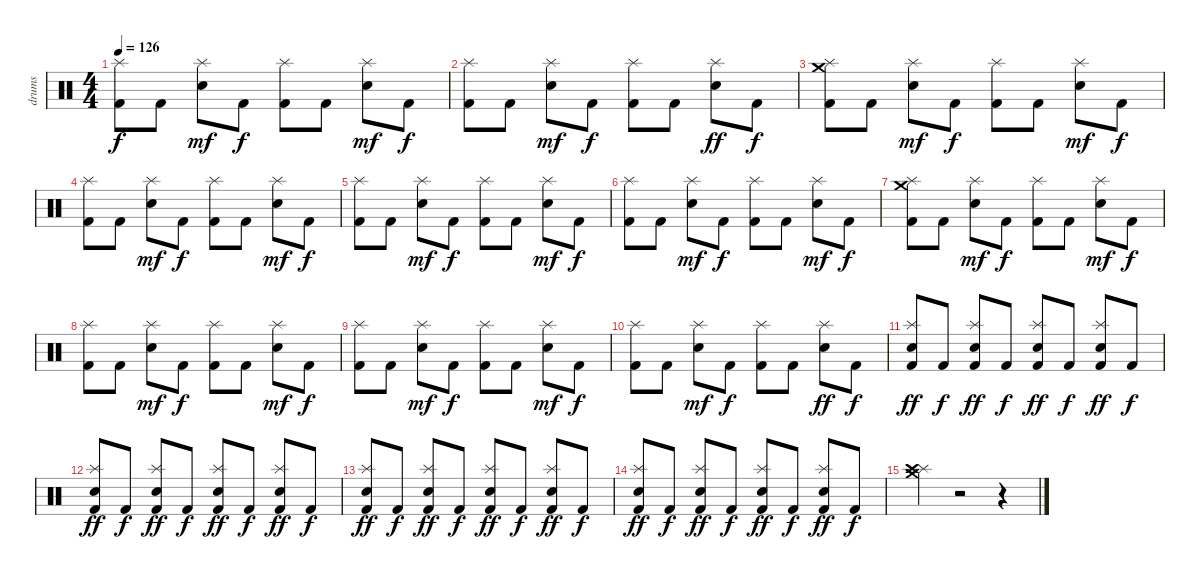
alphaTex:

\track ("drums" "drums") {instrument percussion}
\staff {score}
\articulation defaults
\ts (4 4)
\tempo 126
\clef neutral
\ks c
("Kick (hit) 2" "Splash (hit)").8{dy f} "Kick (hit) 2".8 ("Snare (hit) 2" "Splash (hit)").8{dy mf} "Kick (hit) 2".8{dy f} ("Kick (hit) 2" "Splash (hit)").8 "Kick (hit) 2".8 ("Snare (hit) 2" "Splash (hit)").8{dy mf} "Kick (hit) 2".8{dy f} |
("Kick (hit) 2" "Splash (hit)").8 "Kick (hit) 2".8 ("Snare (hit) 2" "Splash (hit)").8{dy mf} "Kick (hit) 2".8{dy f} ("Splash (hit)" "Kick (hit) 2").8 "Kick (hit) 2".8 ("Splash (hit)" "Snare (hit) 2").8{dy ff} "Kick (hit) 2".8{dy f} |
("Crash medium (hit)" "Kick (hit) 2" "Splash (hit)").8 "Kick (hit) 2".8 ("Snare (hit) 2" "Splash (hit)").8{dy mf} "Kick (hit) 2".8{dy f} ("Kick (hit) 2" "Splash (hit)").8 "Kick (hit) 2".8 ("Snare (hit) 2" "Splash (hit)").8{dy mf} "Kick (hit) 2".8{dy f} |
("Kick (hit) 2" "Splash (hit)").8 "Kick (hit) 2".8 ("Snare (hit) 2" "Splash (hit)").8{dy mf} "Kick (hit) 2".8{dy f} ("Kick (hit) 2" "Splash (hit)").8 "Kick (hit) 2".8 ("Snare (hit) 2" "Splash (hit)").8{dy mf} "Kick (hit) 2".8{dy f} |
("Kick (hit) 2" "Splash (hit)").8 "Kick (hit) 2".8 ("Snare (hit) 2" "Splash (hit)").8{dy mf} "Kick (hit) 2".8{dy f} ("Kick (hit) 2" "Splash (hit)").8 "Kick (hit) 2".8 ("Snare (hit) 2" "Splash (hit)").8{dy mf} "Kick (hit) 2".8{dy f} |
("Kick (hit) 2" "Splash (hit)").8 "Kick (hit) 2".8 ("Snare (hit) 2" "Splash (hit)").8{dy mf} "Kick (hit) 2".8{dy f} ("Kick (hit) 2" "Splash (hit)").8 "Kick (hit) 2".8 ("Snare (hit) 2" "Splash (hit)").8{dy mf} "Kick (hit) 2".8{dy f} |
("Crash medium (hit)" "Kick (hit) 2" "Splash (hit)").8 "Kick (hit) 2".8 ("Snare (hit) 2" "Splash (hit)").8{dy mf} "Kick (hit) 2".8{dy f} ("Kick (hit) 2" "Splash (hit)").8 "Kick (hit) 2".8 ("Snare (hit) 2" "Splash (hit)").8{dy mf} "Kick (hit) 2".8{dy f} |
("Kick (hit) 2" "Splash (hit)").8 "Kick (hit) 2".8 ("Snare (hit) 2" "Splash (hit)").8{dy mf} "Kick (hit) 2".8{dy f} ("Kick (hit) 2" "Splash (hit)").8 "Kick (hit) 2".8 ("Snare (hit) 2" "Splash (hit)").8{dy mf} "Kick (hit) 2".8{dy f} |
("Kick (hit) 2" "Splash (hit)").8 "Kick (hit) 2".8 ("Snare (hit) 2" "Splash (hit)").8{dy mf} "Kick (hit) 2".8{dy f} ("Kick (hit) 2" "Splash (hit)").8 "Kick (hit) 2".8 ("Snare (hit) 2" "Splash (hit)").8{dy mf} "Kick (hit) 2".8{dy f} |
("Kick (hit) 2" "Splash (hit)").8 "Kick (hit) 2".8 ("Snare (hit) 2" "Splash (hit)").8{dy mf} "Kick (hit) 2".8{dy f} ("Splash (hit)" "Kick (hit) 2").8 "Kick (hit) 2".8 ("Splash (hit)" "Snare (hit) 2").8{dy ff} "Kick (hit) 2".8{dy f} |
("Splash (hit)" "Kick (hit) 2" "Snare (hit) 2").8{dy ff} "Kick (hit) 2".8{dy f} ("Splash (hit)" "Kick (hit) 2" "Snare (hit) 2").8{dy ff} "Kick (hit) 2".8{dy f} ("Splash (hit)" "Kick (hit) 2" "Snare (hit) 2").8{dy ff} "Kick (hit) 2".8{dy f} ("Kick (hit) 2" "Snare (hit) 2" "Splash (hit)").8{dy ff} "Kick (hit) 2".8{dy f} |
("Splash (hit)" "Kick (hit) 2" "Snare (hit) 2").8{dy ff} "Kick (hit) 2".8{dy f} ("Splash (hit)" "Kick (hit) 2" "Snare (hit) 2").8{dy ff} "Kick (hit) 2".8{dy f} ("Splash (hit)" "Kick (hit) 2" "Snare (hit) 2").8{dy ff} "Kick (hit) 2".8{dy f} ("Splash (hit)" "Kick (hit) 2" "Snare (hit) 2").8{dy ff} "Kick (hit) 2".8{dy f} |
("Splash (hit)" "Kick (hit) 2" "Snare (hit) 2").8{dy ff} "Kick (hit) 2".8{dy f} ("Splash (hit)" "Kick (hit) 2" "Snare (hit) 2").8{dy ff} "Kick (hit) 2".8{dy f} ("Splash (hit)" "Kick (hit) 2" "Snare (hit) 2").8{dy ff} "Kick (hit) 2".8{dy f} ("Splash (hit)" "Kick (hit) 2" "Snare (hit) 2").8{dy ff} "Kick (hit) 2".8{dy f} |
("Splash (hit)" "Kick (hit) 2" "Snare (hit) 2").8{dy ff} "Kick (hit) 2".8{dy f} ("Splash (hit)" "Kick (hit) 2" "Snare (hit) 2").8{dy ff} "Kick (hit) 2".8{dy f} ("Splash (hit)" "Kick (hit) 2" "Snare (hit) 2").8{dy ff} "Kick (hit) 2".8{dy f} ("Splash (hit)" "Kick (hit) 2" "Snare (hit) 2").8{dy ff} "Kick (hit) 2".8{dy f} |
("Crash medium (hit)" "Splash (hit)" "Crash high (hit)").4 r.2 r.4
